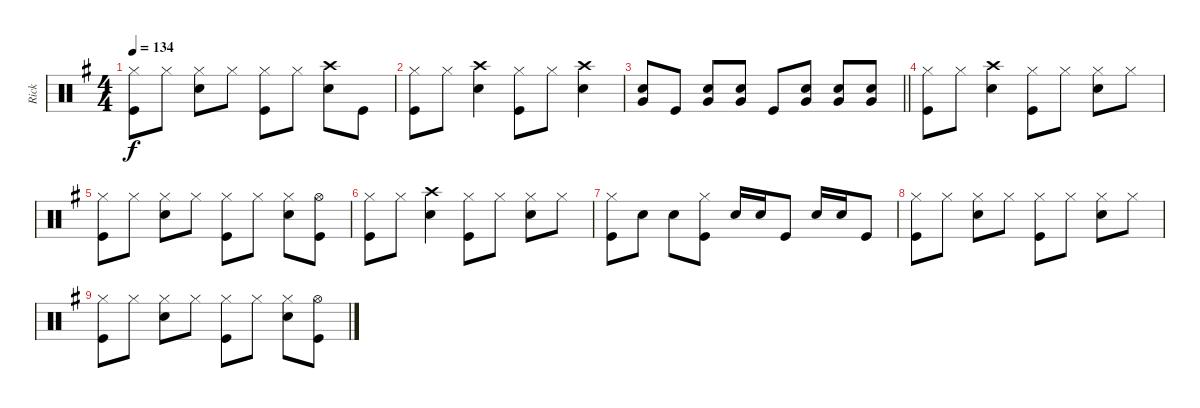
\track ("Rick" "Rick") {instrument percussion}
\staff {score}
\articulation defaults
\ts (4 4)
\tempo 134
\clef neutral
\ks g
("Hi-Hat (closed)" "Kick (hit)").8{dy f} "Hi-Hat (closed)".8 ("Hi-Hat (closed)" "Snare (hit) 2").8 "Hi-Hat (closed)".8 ("Hi-Hat (closed)" "Kick (hit)").8 "Hi-Hat (closed)".8 ("Crash high (hit)" "Snare (hit) 2").8 "Kick (hit)".8 |
("Hi-Hat (closed)" "Kick (hit)").8 "Hi-Hat (closed)".8 ("Crash high (hit)" "Snare (hit) 2").4 ("Hi-Hat (closed)" "Kick (hit)").8 "Hi-Hat (closed)".8 ("Crash high (hit)" "Snare (hit) 2").4 |
\barLineRight lightlight
("Snare (hit) 2" "Very Low Tom (hit)").8 "Kick (hit)".8 ("Snare (hit) 2" "Very Low Tom (hit)").8 ("Snare (hit) 2" "Very Low Tom (hit)").8 "Kick (hit)".8 ("Snare (hit) 2" "Very Low Tom (hit)").8 ("Snare (hit) 2" "Very Low Tom (hit)").8 ("Snare (hit) 2" "Very Low Tom (hit)").8 |
("Hi-Hat (closed)" "Kick (hit)").8 "Hi-Hat (closed)".8 ("Crash high (hit)" "Snare (hit) 2").4 ("Hi-Hat (closed)" "Kick (hit)").8 "Hi-Hat (closed)".8 ("Hi-Hat (closed)" "Snare (hit) 2").8 "Hi-Hat (closed)".8 |
("Hi-Hat (closed)" "Kick (hit)").8 "Hi-Hat (closed)".8 ("Hi-Hat (closed)" "Snare (hit) 2").8 "Hi-Hat (closed)".8 ("Hi-Hat (closed)" "Kick (hit)").8 "Hi-Hat (closed)".8 ("Hi-Hat (closed)" "Snare (hit) 2").8 ("Hi-Hat (open)" "Kick (hit)").8 |
("Hi-Hat (closed)" "Kick (hit)").8 "Hi-Hat (closed)".8 ("Crash high (hit)" "Snare (hit) 2").4 ("Hi-Hat (closed)" "Kick (hit)").8 "Hi-Hat (closed)".8 ("Hi-Hat (closed)" "Snare (hit) 2").8 "Hi-Hat (closed)".8 |
("Hi-Hat (closed)" "Kick (hit)").8 "Snare (hit) 2".8 "Snare (hit) 2".8 ("Hi-Hat (closed)" "Kick (hit)").8 "Snare (hit) 2".16 "Snare (hit) 2".16 "Kick (hit)".8 "Snare (hit) 2".16 "Snare (hit) 2".16 "Kick (hit)".8 |
("Hi-Hat (closed)" "Kick (hit)").8 "Hi-Hat (closed)".8 ("Hi-Hat (closed)" "Snare (hit) 2").8 "Hi-Hat (closed)".8 ("Hi-Hat (closed)" "Kick (hit)").8 "Hi-Hat (closed)".8 ("Hi-Hat (closed)" "Snare (hit) 2").8 "Hi-Hat (closed)".8 |
("Hi-Hat (closed)" "Kick (hit)").8 "Hi-Hat (closed)".8 ("Hi-Hat (closed)" "Snare (hit) 2").8 "Hi-Hat (closed)".8 ("Hi-Hat (closed)" "Kick (hit)").8 "Hi-Hat (closed)".8 ("Hi-Hat (closed)" "Snare (hit) 2").8 ("Hi-Hat (open)" "Kick (hit)").8
